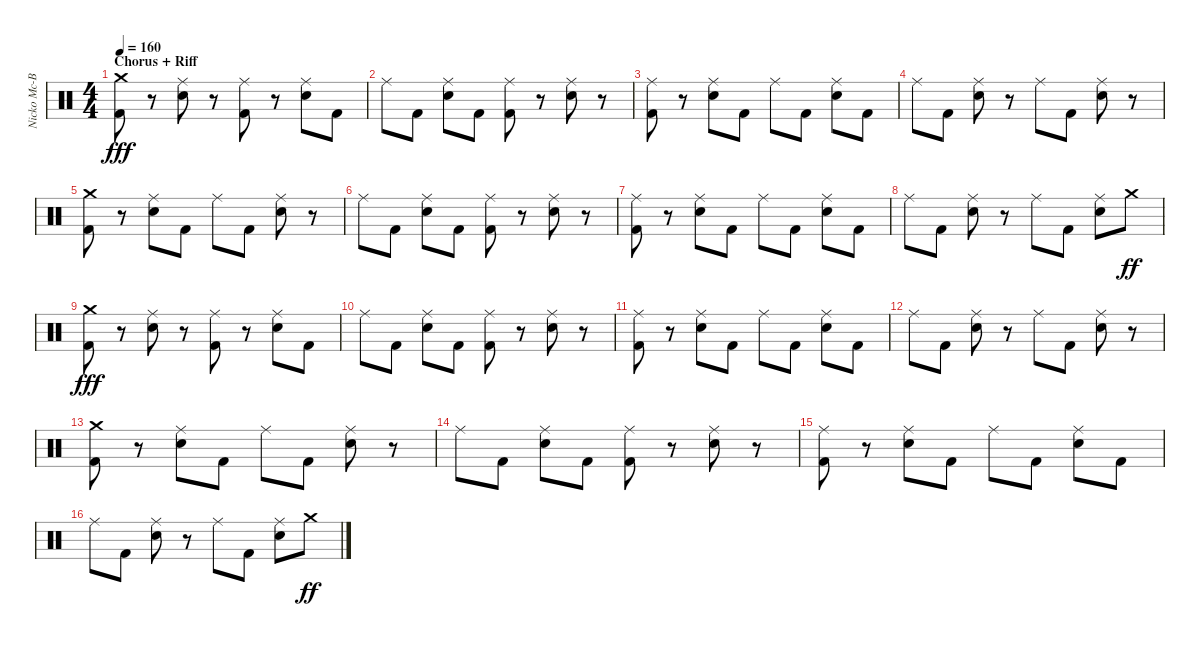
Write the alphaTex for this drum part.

\track ("Nicko Mc-Brain" "Nicko Mc-B") {instrument percussion}
\staff {score}
\articulation defaults
\ts (4 4)
\section ("" "Chorus + Riff")
\tempo 160
\clef neutral
\ks c
("Crash medium (hit)" "Kick (hit) 2").8{dy fff} r.8 ("Ride (middle)" "Snare (hit) 2").8 r.8 ("Ride (middle)" "Kick (hit) 2").8 r.8 ("Ride (middle)" "Snare (hit) 2").8 "Kick (hit) 2".8 |
"Ride (middle)".8 "Kick (hit) 2".8 ("Ride (middle)" "Snare (hit) 2").8 "Kick (hit) 2".8 ("Ride (middle)" "Kick (hit) 2").8 r.8 ("Ride (middle)" "Snare (hit) 2").8 r.8 |
("Ride (middle)" "Kick (hit) 2").8 r.8 ("Ride (middle)" "Snare (hit) 2").8 "Kick (hit) 2".8 "Ride (middle)".8 "Kick (hit) 2".8 ("Ride (middle)" "Snare (hit) 2").8 "Kick (hit) 2".8 |
"Ride (middle)".8 "Kick (hit) 2".8 ("Ride (middle)" "Snare (hit) 2").8 r.8 "Ride (middle)".8 "Kick (hit) 2".8 ("Ride (middle)" "Snare (hit) 2").8 r.8 |
("Crash medium (hit)" "Kick (hit) 2").8 r.8 ("Ride (middle)" "Snare (hit) 2").8 "Kick (hit) 2".8 "Ride (middle)".8 "Kick (hit) 2".8 ("Ride (middle)" "Snare (hit) 2").8 r.8 |
"Ride (middle)".8 "Kick (hit) 2".8 ("Ride (middle)" "Snare (hit) 2").8 "Kick (hit) 2".8 ("Ride (middle)" "Kick (hit) 2").8 r.8 ("Ride (middle)" "Snare (hit) 2").8 r.8 |
("Ride (middle)" "Kick (hit) 2").8 r.8 ("Ride (middle)" "Snare (hit) 2").8 "Kick (hit) 2".8 "Ride (middle)".8 "Kick (hit) 2".8 ("Ride (middle)" "Snare (hit) 2").8 "Kick (hit) 2".8 |
"Ride (middle)".8 "Kick (hit) 2".8 ("Ride (middle)" "Snare (hit) 2").8 r.8 "Ride (middle)".8 "Kick (hit) 2".8 ("Ride (middle)" "Snare (hit) 2").8 "Crash medium (hit)".8{dy ff} |
("Crash medium (hit)" "Kick (hit) 2").8{dy fff} r.8 ("Ride (middle)" "Snare (hit) 2").8 r.8 ("Ride (middle)" "Kick (hit) 2").8 r.8 ("Ride (middle)" "Snare (hit) 2").8 "Kick (hit) 2".8 |
"Ride (middle)".8 "Kick (hit) 2".8 ("Ride (middle)" "Snare (hit) 2").8 "Kick (hit) 2".8 ("Ride (middle)" "Kick (hit) 2").8 r.8 ("Ride (middle)" "Snare (hit) 2").8 r.8 |
("Ride (middle)" "Kick (hit) 2").8 r.8 ("Ride (middle)" "Snare (hit) 2").8 "Kick (hit) 2".8 "Ride (middle)".8 "Kick (hit) 2".8 ("Ride (middle)" "Snare (hit) 2").8 "Kick (hit) 2".8 |
"Ride (middle)".8 "Kick (hit) 2".8 ("Ride (middle)" "Snare (hit) 2").8 r.8 "Ride (middle)".8 "Kick (hit) 2".8 ("Ride (middle)" "Snare (hit) 2").8 r.8 |
("Crash medium (hit)" "Kick (hit) 2").8 r.8 ("Ride (middle)" "Snare (hit) 2").8 "Kick (hit) 2".8 "Ride (middle)".8 "Kick (hit) 2".8 ("Ride (middle)" "Snare (hit) 2").8 r.8 |
"Ride (middle)".8 "Kick (hit) 2".8 ("Ride (middle)" "Snare (hit) 2").8 "Kick (hit) 2".8 ("Ride (middle)" "Kick (hit) 2").8 r.8 ("Ride (middle)" "Snare (hit) 2").8 r.8 |
("Ride (middle)" "Kick (hit) 2").8 r.8 ("Ride (middle)" "Snare (hit) 2").8 "Kick (hit) 2".8 "Ride (middle)".8 "Kick (hit) 2".8 ("Ride (middle)" "Snare (hit) 2").8 "Kick (hit) 2".8 |
"Ride (middle)".8 "Kick (hit) 2".8 ("Ride (middle)" "Snare (hit) 2").8 r.8 "Ride (middle)".8 "Kick (hit) 2".8 ("Ride (middle)" "Snare (hit) 2").8 "Crash medium (hit)".8{dy ff}
